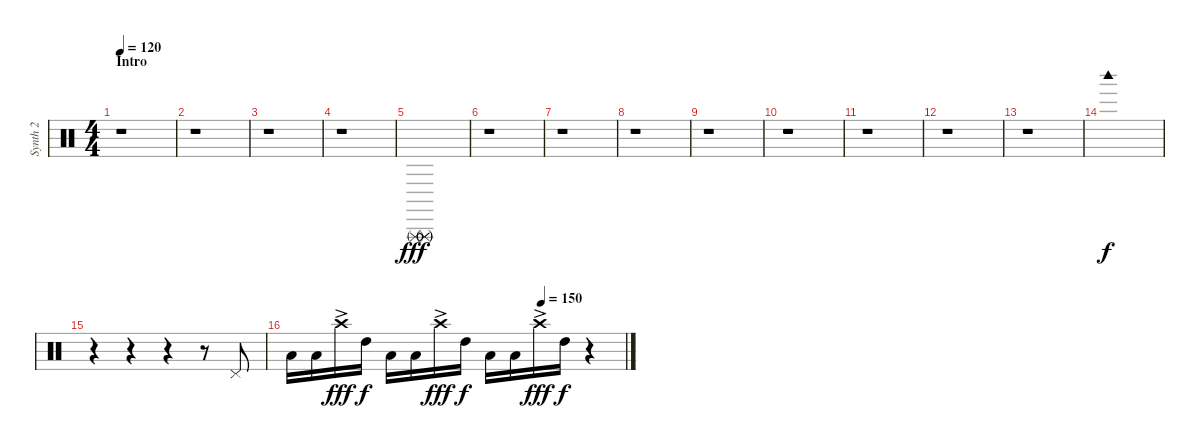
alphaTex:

\track ("Synth 2" "Synth 2") {instrument percussion}
\staff {score}
\articulation defaults
\ts (4 4)
\section ("" "Intro")
\tempo 120
\clef neutral
\ks c
r.1{dy fff} |
r.1 |
r.1 |
r.1 |
("Triangle (rnute)" "Triangle (rnute)" "Triangle (rnute)").1 |
r.1 |
r.1 |
r.1 |
r.1 |
r.1 |
r.1 |
r.1 |
r.1 |
"Woodblock high (hit)".1{dy f} |
r.4 r.4 r.4 r.8 "Pedal Hi-Hat (hit)".8 |
\tempo (150 0.75)
"Low Tom (hit)".16 "Low Tom (hit)".16 "Crash high (hit)"{ac}.16{dy fff} "High Tom (hit)".16{dy f} "Low Tom (hit)".16 "Low Tom (hit)".16 "Crash high (hit)"{ac}.16{dy fff} "High Tom (hit)".16{dy f} "Low Tom (hit)".16 "Low Tom (hit)".16 "Crash high (hit)"{ac}.16{dy fff} "High Tom (hit)".16{dy f} r.4
